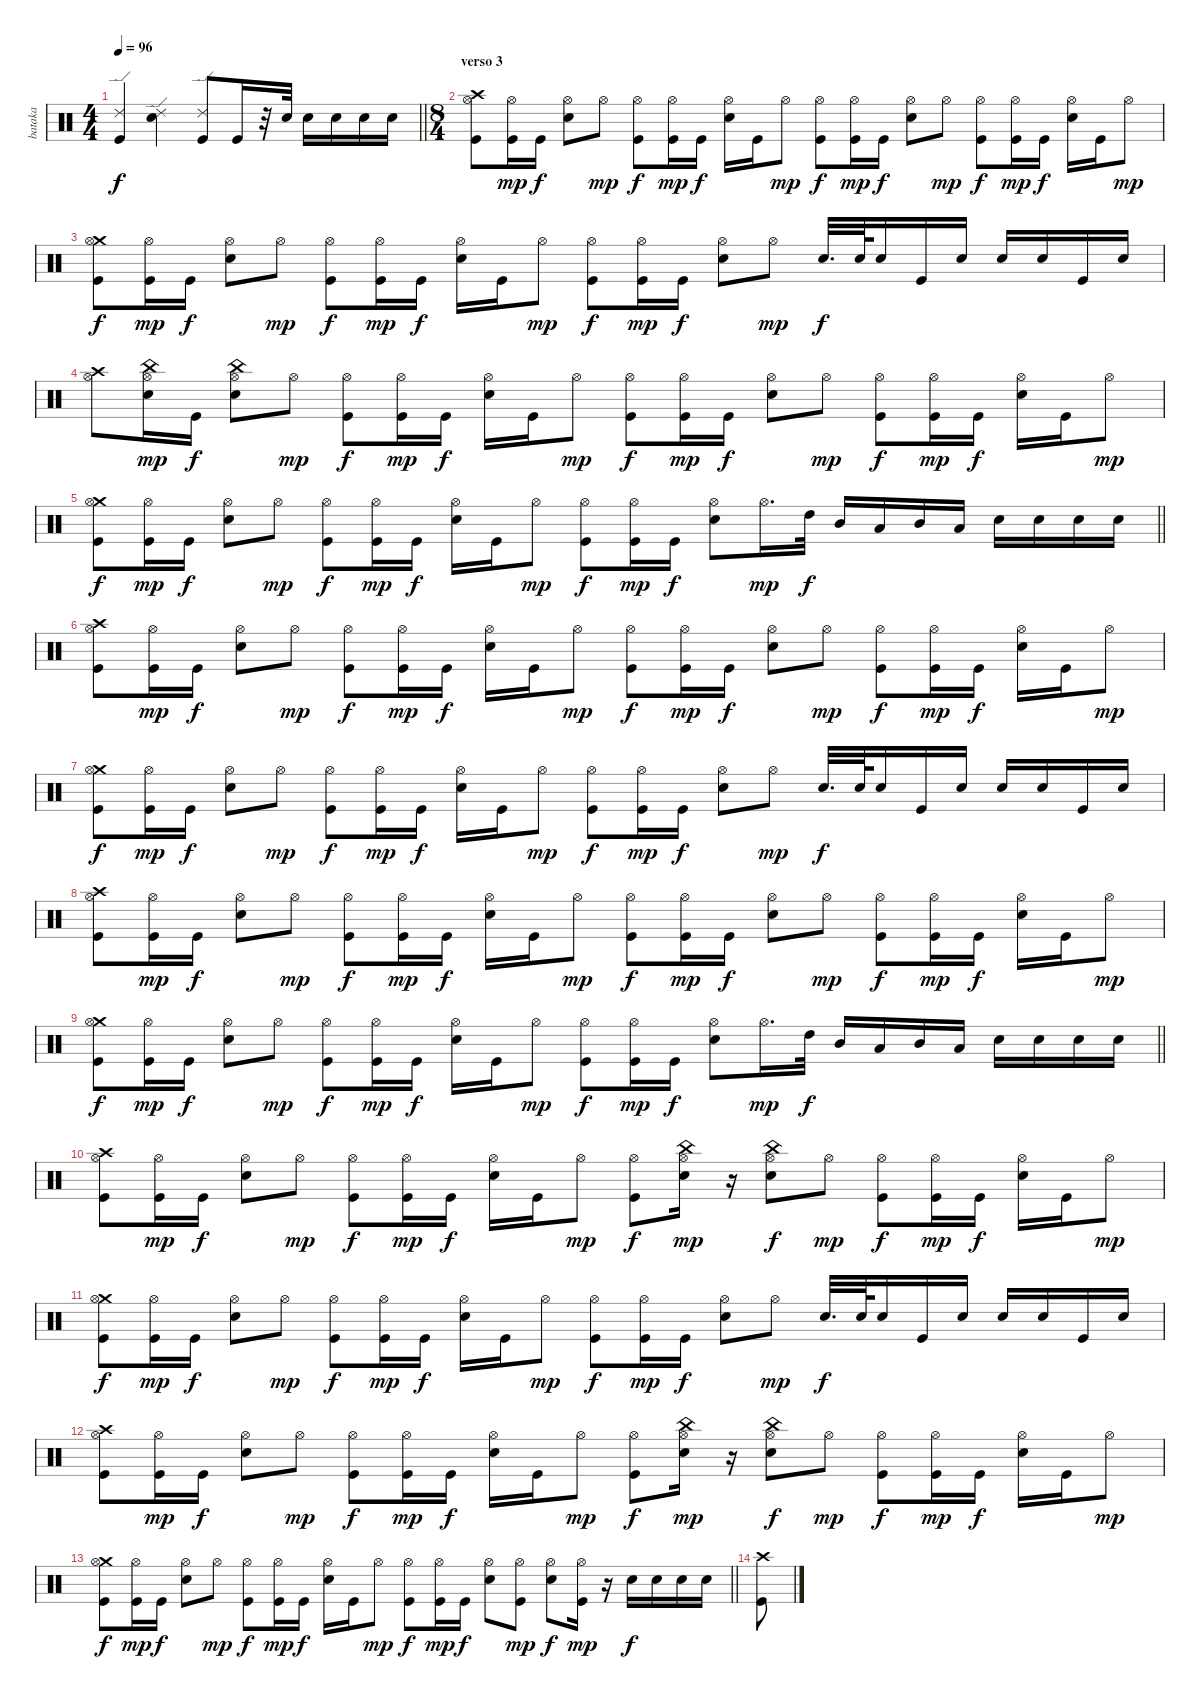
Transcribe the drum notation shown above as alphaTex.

\track ("bataka" "bataka") {instrument percussion}
\staff {score}
\articulation defaults
\ts (4 4)
\tempo 96
\clef neutral
\barLineRight lightlight
\ks c
("Ride (edge) 2" "Kick (hit)").4{dy f} ("Ride (edge) 2" "Snare (hit) 2").4 ("Ride (edge) 2" "Kick (hit)").8 "Kick (hit)".16 r.32 "Snare (hit) 2".32 "Snare (hit) 2".16 "Snare (hit) 2".16 "Snare (hit) 2".16 "Snare (hit) 2".16 |
\ts (8 4)
\section ("" "verso 3")
("Crash high (hit)" "Hi-Hat (open)" "Kick (hit)").8 ("Hi-Hat (open)" "Kick (hit)").16{dy mp} "Kick (hit)".16{dy f} ("Hi-Hat (open)" "Snare (hit) 2").8 "Hi-Hat (open)".8{dy mp} ("Hi-Hat (open)" "Kick (hit)").8{dy f} ("Hi-Hat (open)" "Kick (hit)").16{dy mp} "Kick (hit)".16{dy f} ("Hi-Hat (open)" "Snare (hit) 2").16 "Kick (hit)".16 "Hi-Hat (open)".8{dy mp} ("Hi-Hat (open)" "Kick (hit)").8{dy f} ("Hi-Hat (open)" "Kick (hit)").16{dy mp} "Kick (hit)".16{dy f} ("Hi-Hat (open)" "Snare (hit) 2").8 "Hi-Hat (open)".8{dy mp} ("Hi-Hat (open)" "Kick (hit)").8{dy f} ("Hi-Hat (open)" "Kick (hit)").16{dy mp} "Kick (hit)".16{dy f} ("Hi-Hat (open)" "Snare (hit) 2").16 "Kick (hit)".16 "Hi-Hat (open)".8{dy mp} |
("Crash medium (hit)" "Hi-Hat (open)" "Kick (hit)").8{dy f} ("Hi-Hat (open)" "Kick (hit)").16{dy mp} "Kick (hit)".16{dy f} ("Hi-Hat (open)" "Snare (hit) 2").8 "Hi-Hat (open)".8{dy mp} ("Hi-Hat (open)" "Kick (hit)").8{dy f} ("Hi-Hat (open)" "Kick (hit)").16{dy mp} "Kick (hit)".16{dy f} ("Hi-Hat (open)" "Snare (hit) 2").16 "Kick (hit)".16 "Hi-Hat (open)".8{dy mp} ("Hi-Hat (open)" "Kick (hit)").8{dy f} ("Hi-Hat (open)" "Kick (hit)").16{dy mp} "Kick (hit)".16{dy f} ("Hi-Hat (open)" "Snare (hit) 2").8 "Hi-Hat (open)".8{dy mp} "Snare (hit) 2".32{d dy f} "Snare (hit) 2".64 "Snare (hit) 2".16 "Kick (hit)".16 "Snare (hit) 2".16 "Snare (hit) 2".16 "Snare (hit) 2".16 "Kick (hit)".16 "Snare (hit) 2".16 |
("Crash high (hit)" "Hi-Hat (open)").8 ("China (hit)" "Hi-Hat (open)" "Snare (hit) 2").16{dy mp} "Kick (hit)".16{dy f} ("China (hit)" "Hi-Hat (open)" "Snare (hit) 2").8 "Hi-Hat (open)".8{dy mp} ("Hi-Hat (open)" "Kick (hit)").8{dy f} ("Hi-Hat (open)" "Kick (hit)").16{dy mp} "Kick (hit)".16{dy f} ("Hi-Hat (open)" "Snare (hit) 2").16 "Kick (hit)".16 "Hi-Hat (open)".8{dy mp} ("Hi-Hat (open)" "Kick (hit)").8{dy f} ("Hi-Hat (open)" "Kick (hit)").16{dy mp} "Kick (hit)".16{dy f} ("Hi-Hat (open)" "Snare (hit) 2").8 "Hi-Hat (open)".8{dy mp} ("Hi-Hat (open)" "Kick (hit)").8{dy f} ("Hi-Hat (open)" "Kick (hit)").16{dy mp} "Kick (hit)".16{dy f} ("Hi-Hat (open)" "Snare (hit) 2").16 "Kick (hit)".16 "Hi-Hat (open)".8{dy mp} |
\barLineRight lightlight
("Crash medium (hit)" "Hi-Hat (open)" "Kick (hit)").8{dy f} ("Hi-Hat (open)" "Kick (hit)").16{dy mp} "Kick (hit)".16{dy f} ("Hi-Hat (open)" "Snare (hit) 2").8 "Hi-Hat (open)".8{dy mp} ("Hi-Hat (open)" "Kick (hit)").8{dy f} ("Hi-Hat (open)" "Kick (hit)").16{dy mp} "Kick (hit)".16{dy f} ("Hi-Hat (open)" "Snare (hit) 2").16 "Kick (hit)".16 "Hi-Hat (open)".8{dy mp} ("Hi-Hat (open)" "Kick (hit)").8{dy f} ("Hi-Hat (open)" "Kick (hit)").16{dy mp} "Kick (hit)".16{dy f} ("Hi-Hat (open)" "Snare (hit) 2").8 "Hi-Hat (open)".16{d dy mp} "High Tom (hit)".32{dy f} "Mid Tom (hit)".16 "Low Tom (hit)".16 "Mid Tom (hit)".16 "Low Tom (hit)".16 "Snare (hit) 2".16 "Snare (hit) 2".16 "Snare (hit) 2".16 "Snare (hit) 2".16 |
("Crash high (hit)" "Hi-Hat (open)" "Kick (hit)").8 ("Hi-Hat (open)" "Kick (hit)").16{dy mp} "Kick (hit)".16{dy f} ("Hi-Hat (open)" "Snare (hit) 2").8 "Hi-Hat (open)".8{dy mp} ("Hi-Hat (open)" "Kick (hit)").8{dy f} ("Hi-Hat (open)" "Kick (hit)").16{dy mp} "Kick (hit)".16{dy f} ("Hi-Hat (open)" "Snare (hit) 2").16 "Kick (hit)".16 "Hi-Hat (open)".8{dy mp} ("Hi-Hat (open)" "Kick (hit)").8{dy f} ("Hi-Hat (open)" "Kick (hit)").16{dy mp} "Kick (hit)".16{dy f} ("Hi-Hat (open)" "Snare (hit) 2").8 "Hi-Hat (open)".8{dy mp} ("Hi-Hat (open)" "Kick (hit)").8{dy f} ("Hi-Hat (open)" "Kick (hit)").16{dy mp} "Kick (hit)".16{dy f} ("Hi-Hat (open)" "Snare (hit) 2").16 "Kick (hit)".16 "Hi-Hat (open)".8{dy mp} |
("Crash medium (hit)" "Hi-Hat (open)" "Kick (hit)").8{dy f} ("Hi-Hat (open)" "Kick (hit)").16{dy mp} "Kick (hit)".16{dy f} ("Hi-Hat (open)" "Snare (hit) 2").8 "Hi-Hat (open)".8{dy mp} ("Hi-Hat (open)" "Kick (hit)").8{dy f} ("Hi-Hat (open)" "Kick (hit)").16{dy mp} "Kick (hit)".16{dy f} ("Hi-Hat (open)" "Snare (hit) 2").16 "Kick (hit)".16 "Hi-Hat (open)".8{dy mp} ("Hi-Hat (open)" "Kick (hit)").8{dy f} ("Hi-Hat (open)" "Kick (hit)").16{dy mp} "Kick (hit)".16{dy f} ("Hi-Hat (open)" "Snare (hit) 2").8 "Hi-Hat (open)".8{dy mp} "Snare (hit) 2".32{d dy f} "Snare (hit) 2".64 "Snare (hit) 2".16 "Kick (hit)".16 "Snare (hit) 2".16 "Snare (hit) 2".16 "Snare (hit) 2".16 "Kick (hit)".16 "Snare (hit) 2".16 |
("Crash high (hit)" "Hi-Hat (open)" "Kick (hit)").8 ("Hi-Hat (open)" "Kick (hit)").16{dy mp} "Kick (hit)".16{dy f} ("Hi-Hat (open)" "Snare (hit) 2").8 "Hi-Hat (open)".8{dy mp} ("Hi-Hat (open)" "Kick (hit)").8{dy f} ("Hi-Hat (open)" "Kick (hit)").16{dy mp} "Kick (hit)".16{dy f} ("Hi-Hat (open)" "Snare (hit) 2").16 "Kick (hit)".16 "Hi-Hat (open)".8{dy mp} ("Hi-Hat (open)" "Kick (hit)").8{dy f} ("Hi-Hat (open)" "Kick (hit)").16{dy mp} "Kick (hit)".16{dy f} ("Hi-Hat (open)" "Snare (hit) 2").8 "Hi-Hat (open)".8{dy mp} ("Hi-Hat (open)" "Kick (hit)").8{dy f} ("Hi-Hat (open)" "Kick (hit)").16{dy mp} "Kick (hit)".16{dy f} ("Hi-Hat (open)" "Snare (hit) 2").16 "Kick (hit)".16 "Hi-Hat (open)".8{dy mp} |
\barLineRight lightlight
("Crash medium (hit)" "Hi-Hat (open)" "Kick (hit)").8{dy f} ("Hi-Hat (open)" "Kick (hit)").16{dy mp} "Kick (hit)".16{dy f} ("Hi-Hat (open)" "Snare (hit) 2").8 "Hi-Hat (open)".8{dy mp} ("Hi-Hat (open)" "Kick (hit)").8{dy f} ("Hi-Hat (open)" "Kick (hit)").16{dy mp} "Kick (hit)".16{dy f} ("Hi-Hat (open)" "Snare (hit) 2").16 "Kick (hit)".16 "Hi-Hat (open)".8{dy mp} ("Hi-Hat (open)" "Kick (hit)").8{dy f} ("Hi-Hat (open)" "Kick (hit)").16{dy mp} "Kick (hit)".16{dy f} ("Hi-Hat (open)" "Snare (hit) 2").8 "Hi-Hat (open)".16{d dy mp} "High Tom (hit)".32{dy f} "Mid Tom (hit)".16 "Low Tom (hit)".16 "Mid Tom (hit)".16 "Low Tom (hit)".16 "Snare (hit) 2".16 "Snare (hit) 2".16 "Snare (hit) 2".16 "Snare (hit) 2".16 |
("Crash high (hit)" "Hi-Hat (open)" "Kick (hit)").8 ("Hi-Hat (open)" "Kick (hit)").16{dy mp} "Kick (hit)".16{dy f} ("Hi-Hat (open)" "Snare (hit) 2").8 "Hi-Hat (open)".8{dy mp} ("Hi-Hat (open)" "Kick (hit)").8{dy f} ("Hi-Hat (open)" "Kick (hit)").16{dy mp} "Kick (hit)".16{dy f} ("Hi-Hat (open)" "Snare (hit) 2").16 "Kick (hit)".16 "Hi-Hat (open)".8{dy mp} ("Hi-Hat (open)" "Kick (hit)").8{dy f} ("China (hit)" "Hi-Hat (open)" "Snare (hit) 2").16{dy mp} r.16 ("China (hit)" "Hi-Hat (open)" "Snare (hit) 2").8{dy f} "Hi-Hat (open)".8{dy mp} ("Hi-Hat (open)" "Kick (hit)").8{dy f} ("Hi-Hat (open)" "Kick (hit)").16{dy mp} "Kick (hit)".16{dy f} ("Hi-Hat (open)" "Snare (hit) 2").16 "Kick (hit)".16 "Hi-Hat (open)".8{dy mp} |
("Crash medium (hit)" "Hi-Hat (open)" "Kick (hit)").8{dy f} ("Hi-Hat (open)" "Kick (hit)").16{dy mp} "Kick (hit)".16{dy f} ("Hi-Hat (open)" "Snare (hit) 2").8 "Hi-Hat (open)".8{dy mp} ("Hi-Hat (open)" "Kick (hit)").8{dy f} ("Hi-Hat (open)" "Kick (hit)").16{dy mp} "Kick (hit)".16{dy f} ("Hi-Hat (open)" "Snare (hit) 2").16 "Kick (hit)".16 "Hi-Hat (open)".8{dy mp} ("Hi-Hat (open)" "Kick (hit)").8{dy f} ("Hi-Hat (open)" "Kick (hit)").16{dy mp} "Kick (hit)".16{dy f} ("Hi-Hat (open)" "Snare (hit) 2").8 "Hi-Hat (open)".8{dy mp} "Snare (hit) 2".32{d dy f} "Snare (hit) 2".64 "Snare (hit) 2".16 "Kick (hit)".16 "Snare (hit) 2".16 "Snare (hit) 2".16 "Snare (hit) 2".16 "Kick (hit)".16 "Snare (hit) 2".16 |
("Crash high (hit)" "Hi-Hat (open)" "Kick (hit)").8 ("Hi-Hat (open)" "Kick (hit)").16{dy mp} "Kick (hit)".16{dy f} ("Hi-Hat (open)" "Snare (hit) 2").8 "Hi-Hat (open)".8{dy mp} ("Hi-Hat (open)" "Kick (hit)").8{dy f} ("Hi-Hat (open)" "Kick (hit)").16{dy mp} "Kick (hit)".16{dy f} ("Hi-Hat (open)" "Snare (hit) 2").16 "Kick (hit)".16 "Hi-Hat (open)".8{dy mp} ("Hi-Hat (open)" "Kick (hit)").8{dy f} ("China (hit)" "Hi-Hat (open)" "Snare (hit) 2").16{dy mp} r.16 ("China (hit)" "Hi-Hat (open)" "Snare (hit) 2").8{dy f} "Hi-Hat (open)".8{dy mp} ("Hi-Hat (open)" "Kick (hit)").8{dy f} ("Hi-Hat (open)" "Kick (hit)").16{dy mp} "Kick (hit)".16{dy f} ("Hi-Hat (open)" "Snare (hit) 2").16 "Kick (hit)".16 "Hi-Hat (open)".8{dy mp} |
\barLineRight lightlight
("Crash medium (hit)" "Hi-Hat (open)" "Kick (hit)").8{dy f} ("Hi-Hat (open)" "Kick (hit)").16{dy mp} "Kick (hit)".16{dy f} ("Hi-Hat (open)" "Snare (hit) 2").8 "Hi-Hat (open)".8{dy mp} ("Hi-Hat (open)" "Kick (hit)").8{dy f} ("Hi-Hat (open)" "Kick (hit)").16{dy mp} "Kick (hit)".16{dy f} ("Hi-Hat (open)" "Snare (hit) 2").16 "Kick (hit)".16 "Hi-Hat (open)".8{dy mp} ("Hi-Hat (open)" "Kick (hit)").8{dy f} ("Hi-Hat (open)" "Kick (hit)").16{dy mp} "Kick (hit)".16{dy f} ("Hi-Hat (open)" "Snare (hit) 2").8 ("Hi-Hat (open)" "Kick (hit)").8{dy mp} ("Hi-Hat (open)" "Snare (hit) 2").8{dy f} ("Hi-Hat (open)" "Kick (hit)").16{dy mp} r.16 "Snare (hit) 2".16{dy f} "Snare (hit) 2".16 "Snare (hit) 2".16 "Snare (hit) 2".16 |
("Crash high (hit)" "Kick (hit)").8
